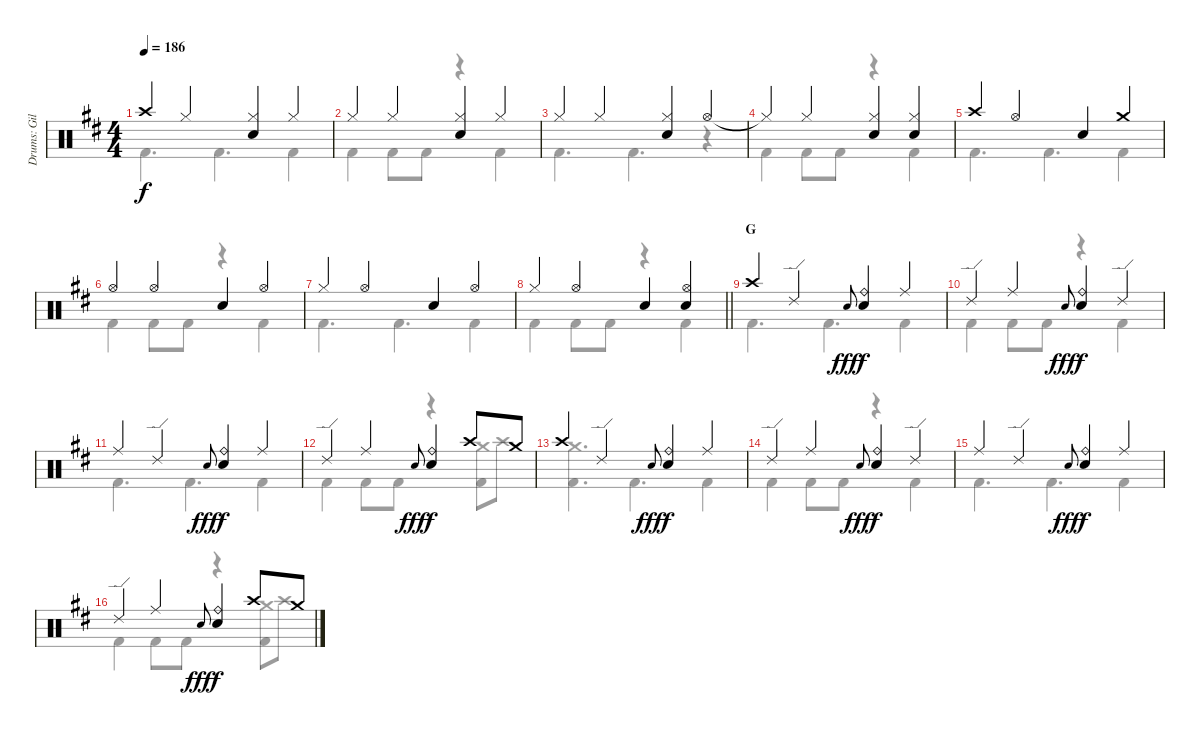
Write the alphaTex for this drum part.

\track ("Drums: Gil" "Drums: Gil") {instrument percussion}
\staff {score}
\articulation defaults
\voice
\ts (4 4)
\tempo 186
\clef neutral
\ks d "Crash high (hit)".4{dy f} "Hi-Hat (closed)".4
("Hi-Hat (closed)" "Snare (hit) 2").4 "Hi-Hat (closed)".4 |
"Hi-Hat (closed)".4 "Hi-Hat (closed)".4 ("Hi-Hat (closed)" "Snare (hit) 2").4 "Hi-Hat (closed)".4 |
"Hi-Hat (closed)".4 "Hi-Hat (closed)".4 ("Hi-Hat (closed)" "Snare (hit) 2").4 "Hi-Hat (open)".4 |
"Hi-Hat (closed)"{t}.4 "Hi-Hat (closed)".4 ("Hi-Hat (closed)" "Snare (hit) 2").4 ("Hi-Hat (closed)" "Snare (hit) 2").4 |
"Crash high (hit)".4 "Hi-Hat (open)".4 "Snare (hit) 2".4 "Crash medium (hit)".4 |
"Hi-Hat (open)".4 "Hi-Hat (open)".4 "Snare (hit) 2".4 "Hi-Hat (open)".4 |
"Hi-Hat (closed)".4 "Hi-Hat (open)".4 "Snare (hit) 2".4 "Hi-Hat (open)".4 |
\barLineRight lightlight "Hi-Hat (closed)".4 "Hi-Hat (open)".4 "Snare (hit) 2".4
("Hi-Hat (open)" "Snare (hit) 2").4 |
\section ("" "G")
"Crash high (hit)".4 "Ride (edge) 2".4 "Electric Snare (hit)".8{gr onbeat dy fff} ("Ride (bell)" "Snare (hit) 2").4{dy f} "Ride (middle)".4 |
"Ride (edge) 2".4 "Ride (middle)".4 "Electric Snare (hit)".8{gr onbeat dy fff} ("Ride (bell)" "Snare (hit) 2").4{dy f} "Ride (edge) 2".4 |
"Ride (middle)".4 "Ride (edge) 2".4 "Electric Snare (hit)".8{gr onbeat dy fff} ("Ride (bell)" "Snare (hit) 2").4{dy f} "Ride (middle)".4 |
"Ride (edge) 2".4 "Ride (middle)".4 "Electric Snare (hit)".8{gr onbeat dy fff} ("Ride (bell)" "Snare (hit) 2").4{dy f} "Crash high (hit)".8 "Crash medium (hit)".8 |
"Crash high (hit)".4 "Ride (edge) 2".4 "Electric Snare (hit)".8{gr onbeat dy fff} ("Ride (bell)" "Snare (hit) 2").4{dy f} "Ride (middle)".4 |
"Ride (edge) 2".4 "Ride (middle)".4 "Electric Snare (hit)".8{gr onbeat dy fff} ("Ride (bell)" "Snare (hit) 2").4{dy f} "Ride (edge) 2".4 |
"Ride (middle)".4 "Ride (edge) 2".4 "Electric Snare (hit)".8{gr onbeat dy fff} ("Ride (bell)" "Snare (hit) 2").4{dy f} "Ride (middle)".4 |
"Ride (edge) 2".4 "Ride (middle)".4 "Electric Snare (hit)".8{gr onbeat dy fff} ("Ride (bell)" "Snare (hit) 2").4{dy f} "Crash high (hit)".8 "Crash medium (hit)".8
\voice
\clef neutral
\ottava regular
\simile none
\ks d "Kick (hit) 2".4{d dy f} "Kick (hit) 2".4{d} "Kick (hit) 2".4
|
"Kick (hit) 2".4 "Kick (hit) 2".8 "Kick (hit) 2".8 r.4 "Kick (hit) 2".4 |
"Kick (hit) 2".4{d} "Kick (hit) 2".4{d} r.4 |
"Kick (hit) 2".4 "Kick (hit) 2".8 "Kick (hit) 2".8 r.4 "Kick (hit) 2".4 |
"Kick (hit) 2".4{d} "Kick (hit) 2".4{d} "Kick (hit) 2".4 |
"Kick (hit) 2".4 "Kick (hit) 2".8 "Kick (hit) 2".8 r.4 "Kick (hit) 2".4 |
"Kick (hit) 2".4{d} "Kick (hit) 2".4{d} "Kick (hit) 2".4 |
\barLineRight lightlight "Kick (hit) 2".4 "Kick (hit) 2".8 "Kick (hit) 2".8
r.4 "Kick (hit) 2".4 |
"Kick (hit) 2".4{d} "Kick (hit) 2".4{d} "Kick (hit) 2".4 |
"Kick (hit) 2".4 "Kick (hit) 2".8 "Kick (hit) 2".8 r.4 "Kick (hit) 2".4 |
"Kick (hit) 2".4{d} "Kick (hit) 2".4{d} "Kick (hit) 2".4 |
"Kick (hit) 2".4 "Kick (hit) 2".8 "Kick (hit) 2".8 r.4 ("Crash medium (hit)" "Kick (hit) 2").8 "Crash high (hit)".8 |
("Crash medium (hit)" "Kick (hit) 2").4{d} "Kick (hit) 2".4{d} "Kick (hit) 2".4 |
"Kick (hit) 2".4 "Kick (hit) 2".8 "Kick (hit) 2".8 r.4 "Kick (hit) 2".4 |
"Kick (hit) 2".4{d} "Kick (hit) 2".4{d} "Kick (hit) 2".4 |
"Kick (hit) 2".4 "Kick (hit) 2".8 "Kick (hit) 2".8 r.4 ("Crash medium (hit)" "Kick (hit) 2").8 "Crash high (hit)".8
